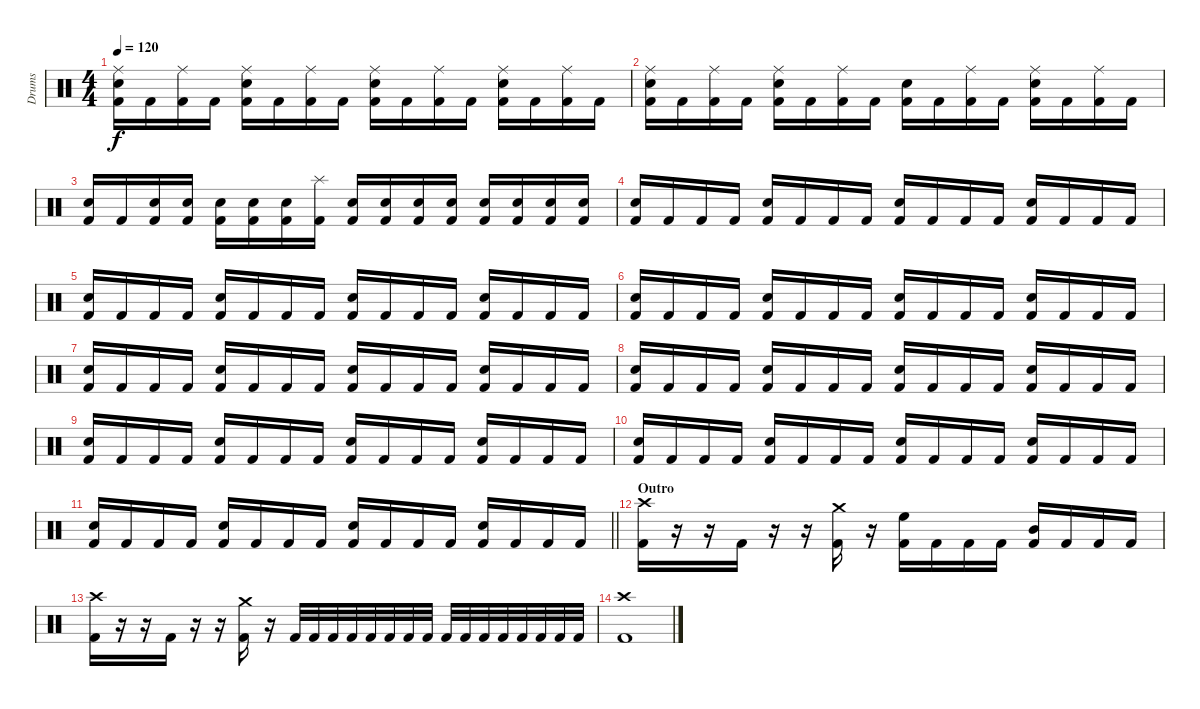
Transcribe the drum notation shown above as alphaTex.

\track ("Drums" "Drums") {instrument percussion}
\staff {score}
\articulation defaults
\ts (4 4)
\tempo 120
\clef neutral
\ks c
("Kick (hit) 2" "Ride (middle)" "Snare (hit) 2").16{dy f} "Kick (hit) 2".16 ("Kick (hit) 2" "Ride (middle)").16 "Kick (hit) 2".16 ("Kick (hit) 2" "Ride (middle)" "Snare (hit) 2").16 "Kick (hit) 2".16 ("Kick (hit) 2" "Ride (middle)").16 "Kick (hit) 2".16 ("Kick (hit) 2" "Ride (middle)" "Snare (hit) 2").16 "Kick (hit) 2".16 ("Kick (hit) 2" "Ride (middle)").16 "Kick (hit) 2".16 ("Kick (hit) 2" "Ride (middle)" "Snare (hit) 2").16 "Kick (hit) 2".16 ("Kick (hit) 2" "Ride (middle)").16 "Kick (hit) 2".16 |
("Kick (hit) 2" "Ride (middle)" "Snare (hit) 2").16 "Kick (hit) 2".16 ("Kick (hit) 2" "Ride (middle)").16 "Kick (hit) 2".16 ("Kick (hit) 2" "Ride (middle)" "Snare (hit) 2").16 "Kick (hit) 2".16 ("Kick (hit) 2" "Ride (middle)").16 "Kick (hit) 2".16 ("Kick (hit) 2" "Snare (hit) 2").16 "Kick (hit) 2".16 ("Kick (hit) 2" "Ride (middle)").16 "Kick (hit) 2".16 ("Kick (hit) 2" "Ride (middle)" "Snare (hit) 2").16 "Kick (hit) 2".16 ("Kick (hit) 2" "Ride (middle)").16 "Kick (hit) 2".16 |
("Kick (hit) 2" "Snare (hit) 2").16 "Kick (hit) 2".16 ("Kick (hit) 2" "Snare (hit) 2").16 ("Kick (hit) 2" "Snare (hit) 2").16 ("Kick (hit) 2" "Snare (hit) 2").16 ("Kick (hit) 2" "Snare (hit) 2").16 ("Kick (hit) 2" "Snare (hit) 2").16 ("Kick (hit) 2" "Splash (hit)").16 ("Kick (hit) 2" "Snare (hit) 2").16 ("Kick (hit) 2" "Snare (hit) 2").16 ("Kick (hit) 2" "Snare (hit) 2").16 ("Kick (hit) 2" "Snare (hit) 2").16 ("Kick (hit) 2" "Snare (hit) 2").16 ("Kick (hit) 2" "Snare (hit) 2").16 ("Kick (hit) 2" "Snare (hit) 2").16 ("Kick (hit) 2" "Snare (hit) 2").16 |
("Kick (hit) 2" "Snare (hit) 2").16 "Kick (hit) 2".16 "Kick (hit) 2".16 "Kick (hit) 2".16 ("Kick (hit) 2" "Snare (hit) 2").16 "Kick (hit) 2".16 "Kick (hit) 2".16 "Kick (hit) 2".16 ("Kick (hit) 2" "Snare (hit) 2").16 "Kick (hit) 2".16 "Kick (hit) 2".16 "Kick (hit) 2".16 ("Kick (hit) 2" "Snare (hit) 2").16 "Kick (hit) 2".16 "Kick (hit) 2".16 "Kick (hit) 2".16 |
("Kick (hit) 2" "Snare (hit) 2").16 "Kick (hit) 2".16 "Kick (hit) 2".16 "Kick (hit) 2".16 ("Kick (hit) 2" "Snare (hit) 2").16 "Kick (hit) 2".16 "Kick (hit) 2".16 "Kick (hit) 2".16 ("Kick (hit) 2" "Snare (hit) 2").16 "Kick (hit) 2".16 "Kick (hit) 2".16 "Kick (hit) 2".16 ("Kick (hit) 2" "Snare (hit) 2").16 "Kick (hit) 2".16 "Kick (hit) 2".16 "Kick (hit) 2".16 |
("Kick (hit) 2" "Snare (hit) 2").16 "Kick (hit) 2".16 "Kick (hit) 2".16 "Kick (hit) 2".16 ("Kick (hit) 2" "Snare (hit) 2").16 "Kick (hit) 2".16 "Kick (hit) 2".16 "Kick (hit) 2".16 ("Kick (hit) 2" "Snare (hit) 2").16 "Kick (hit) 2".16 "Kick (hit) 2".16 "Kick (hit) 2".16 ("Kick (hit) 2" "Snare (hit) 2").16 "Kick (hit) 2".16 "Kick (hit) 2".16 "Kick (hit) 2".16 |
("Kick (hit) 2" "Snare (hit) 2").16 "Kick (hit) 2".16 "Kick (hit) 2".16 "Kick (hit) 2".16 ("Kick (hit) 2" "Snare (hit) 2").16 "Kick (hit) 2".16 "Kick (hit) 2".16 "Kick (hit) 2".16 ("Kick (hit) 2" "Snare (hit) 2").16 "Kick (hit) 2".16 "Kick (hit) 2".16 "Kick (hit) 2".16 ("Kick (hit) 2" "Snare (hit) 2").16 "Kick (hit) 2".16 "Kick (hit) 2".16 "Kick (hit) 2".16 |
("Kick (hit) 2" "Snare (hit) 2").16 "Kick (hit) 2".16 "Kick (hit) 2".16 "Kick (hit) 2".16 ("Kick (hit) 2" "Snare (hit) 2").16 "Kick (hit) 2".16 "Kick (hit) 2".16 "Kick (hit) 2".16 ("Kick (hit) 2" "Snare (hit) 2").16 "Kick (hit) 2".16 "Kick (hit) 2".16 "Kick (hit) 2".16 ("Kick (hit) 2" "Snare (hit) 2").16 "Kick (hit) 2".16 "Kick (hit) 2".16 "Kick (hit) 2".16 |
("Kick (hit) 2" "Snare (hit) 2").16 "Kick (hit) 2".16 "Kick (hit) 2".16 "Kick (hit) 2".16 ("Kick (hit) 2" "Snare (hit) 2").16 "Kick (hit) 2".16 "Kick (hit) 2".16 "Kick (hit) 2".16 ("Kick (hit) 2" "Snare (hit) 2").16 "Kick (hit) 2".16 "Kick (hit) 2".16 "Kick (hit) 2".16 ("Kick (hit) 2" "Snare (hit) 2").16 "Kick (hit) 2".16 "Kick (hit) 2".16 "Kick (hit) 2".16 |
("Kick (hit) 2" "Snare (hit) 2").16 "Kick (hit) 2".16 "Kick (hit) 2".16 "Kick (hit) 2".16 ("Kick (hit) 2" "Snare (hit) 2").16 "Kick (hit) 2".16 "Kick (hit) 2".16 "Kick (hit) 2".16 ("Kick (hit) 2" "Snare (hit) 2").16 "Kick (hit) 2".16 "Kick (hit) 2".16 "Kick (hit) 2".16 ("Kick (hit) 2" "Snare (hit) 2").16 "Kick (hit) 2".16 "Kick (hit) 2".16 "Kick (hit) 2".16 |
\barLineRight lightlight
("Kick (hit) 2" "Snare (hit) 2").16 "Kick (hit) 2".16 "Kick (hit) 2".16 "Kick (hit) 2".16 ("Kick (hit) 2" "Snare (hit) 2").16 "Kick (hit) 2".16 "Kick (hit) 2".16 "Kick (hit) 2".16 ("Kick (hit) 2" "Snare (hit) 2").16 "Kick (hit) 2".16 "Kick (hit) 2".16 "Kick (hit) 2".16 ("Kick (hit) 2" "Snare (hit) 2").16 "Kick (hit) 2".16 "Kick (hit) 2".16 "Kick (hit) 2".16 |
\section ("" "Outro")
("Kick (hit) 2" "Crash high (hit)").16 r.16 r.16 "Kick (hit) 2".16 r.16 r.16 ("Kick (hit) 2" "Crash medium (hit)").16 r.16 ("Kick (hit) 2" "High Floor Tom (hit)").16 "Kick (hit) 2".16 "Kick (hit) 2".16 "Kick (hit) 2".16 ("Kick (hit) 2" "Mid Tom (hit)").16 "Kick (hit) 2".16 "Kick (hit) 2".16 "Kick (hit) 2".16 |
("Kick (hit) 2" "Crash high (hit)").16 r.16 r.16 "Kick (hit) 2".16 r.16 r.16 ("Kick (hit) 2" "Crash medium (hit)").16 r.16 "Kick (hit) 2".32 "Kick (hit) 2".32 "Kick (hit) 2".32 "Kick (hit) 2".32 "Kick (hit) 2".32 "Kick (hit) 2".32 "Kick (hit) 2".32 "Kick (hit) 2".32 "Kick (hit) 2".32 "Kick (hit) 2".32 "Kick (hit) 2".32 "Kick (hit) 2".32 "Kick (hit) 2".32 "Kick (hit) 2".32 "Kick (hit) 2".32 "Kick (hit) 2".32 |
("Kick (hit) 2" "Crash high (hit)").1
